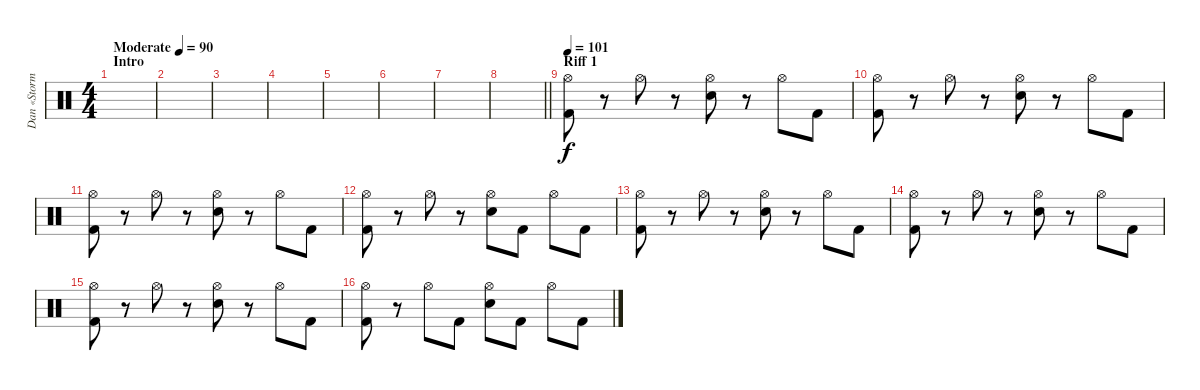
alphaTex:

\track ("Dan «Storm» Mullins" "Dan «Storm") {instrument percussion}
\staff {score}
\articulation defaults
\ts (4 4)
\section ("" "Intro")
\tempo (90 "Moderate")
\clef neutral
\ks c
|
|
|
|
|
|
|
\barLineRight lightlight
|
\section ("" "Riff 1")
\tempo 101
("Hi-Hat (open)" "Kick (hit) 2").8 r.8 "Hi-Hat (open)".8 r.8 ("Hi-Hat (open)" "Electric Snare (hit)").8 r.8 "Hi-Hat (open)".8 "Kick (hit) 2".8 |
("Hi-Hat (open)" "Kick (hit) 2").8 r.8 "Hi-Hat (open)".8 r.8 ("Hi-Hat (open)" "Electric Snare (hit)").8 r.8 "Hi-Hat (open)".8 "Kick (hit) 2".8 |
("Hi-Hat (open)" "Kick (hit) 2").8 r.8 "Hi-Hat (open)".8 r.8 ("Hi-Hat (open)" "Electric Snare (hit)").8 r.8 "Hi-Hat (open)".8 "Kick (hit) 2".8 |
("Hi-Hat (open)" "Kick (hit) 2").8 r.8 "Hi-Hat (open)".8 r.8 ("Hi-Hat (open)" "Electric Snare (hit)").8 "Kick (hit) 2".8 "Hi-Hat (open)".8 "Kick (hit) 2".8 |
("Hi-Hat (open)" "Kick (hit) 2").8 r.8 "Hi-Hat (open)".8 r.8 ("Hi-Hat (open)" "Electric Snare (hit)").8 r.8 "Hi-Hat (open)".8 "Kick (hit) 2".8 |
("Hi-Hat (open)" "Kick (hit) 2").8 r.8 "Hi-Hat (open)".8 r.8 ("Hi-Hat (open)" "Electric Snare (hit)").8 r.8 "Hi-Hat (open)".8 "Kick (hit) 2".8 |
("Hi-Hat (open)" "Kick (hit) 2").8 r.8 "Hi-Hat (open)".8 r.8 ("Hi-Hat (open)" "Electric Snare (hit)").8 r.8 "Hi-Hat (open)".8 "Kick (hit) 2".8 |
("Hi-Hat (open)" "Kick (hit) 2").8 r.8 "Hi-Hat (open)".8 "Kick (hit) 2".8 ("Hi-Hat (open)" "Electric Snare (hit)").8 "Kick (hit) 2".8 "Hi-Hat (open)".8 "Kick (hit) 2".8
